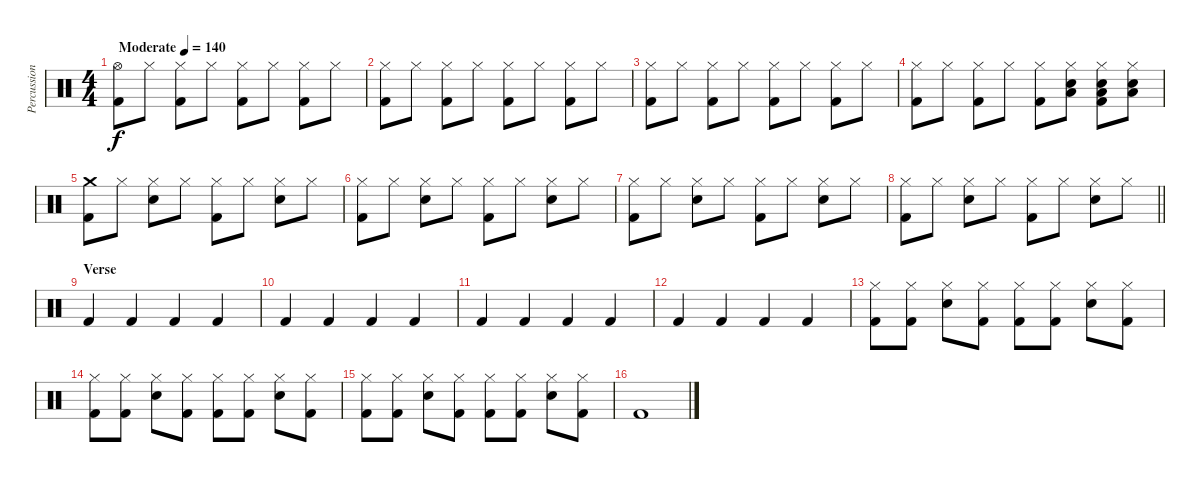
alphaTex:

\track ("Percussion" "Percussion") {instrument percussion}
\staff {score}
\articulation defaults
\ts (4 4)
\tempo (140 "Moderate")
\clef neutral
\ks c
("Hi-Hat (open)" "Kick (hit) 2").8{dy f} "Hi-Hat (closed)".8 ("Hi-Hat (closed)" "Kick (hit) 2").8 "Hi-Hat (closed)".8 ("Hi-Hat (closed)" "Kick (hit) 2").8 "Hi-Hat (closed)".8 ("Hi-Hat (closed)" "Kick (hit) 2").8 "Hi-Hat (closed)".8 |
("Hi-Hat (closed)" "Kick (hit) 2").8 "Hi-Hat (closed)".8 ("Hi-Hat (closed)" "Kick (hit) 2").8 "Hi-Hat (closed)".8 ("Hi-Hat (closed)" "Kick (hit) 2").8 "Hi-Hat (closed)".8 ("Hi-Hat (closed)" "Kick (hit) 2").8 "Hi-Hat (closed)".8 |
("Hi-Hat (closed)" "Kick (hit) 2").8 "Hi-Hat (closed)".8 ("Hi-Hat (closed)" "Kick (hit) 2").8 "Hi-Hat (closed)".8 ("Hi-Hat (closed)" "Kick (hit) 2").8 "Hi-Hat (closed)".8 ("Hi-Hat (closed)" "Kick (hit) 2").8 "Hi-Hat (closed)".8 |
("Hi-Hat (closed)" "Kick (hit) 2").8 "Hi-Hat (closed)".8 ("Hi-Hat (closed)" "Kick (hit) 2").8 "Hi-Hat (closed)".8 ("Hi-Hat (closed)" "Kick (hit) 2").8 ("Hi-Hat (closed)" "Snare (hit) 2" "Low Floor Tom (hit)").8 ("Hi-Hat (closed)" "Snare (hit) 2" "Low Floor Tom (hit)" "Kick (hit) 2").8 ("Hi-Hat (closed)" "Snare (hit) 2" "Low Floor Tom (hit)").8 |
("Crash medium (hit)" "Kick (hit) 2").8 "Hi-Hat (closed)".8 ("Hi-Hat (closed)" "Snare (hit) 2").8 "Hi-Hat (closed)".8 ("Hi-Hat (closed)" "Kick (hit) 2").8 "Hi-Hat (closed)".8 ("Hi-Hat (closed)" "Snare (hit) 2").8 "Hi-Hat (closed)".8 |
("Hi-Hat (closed)" "Kick (hit) 2").8 "Hi-Hat (closed)".8 ("Hi-Hat (closed)" "Snare (hit) 2").8 "Hi-Hat (closed)".8 ("Hi-Hat (closed)" "Kick (hit) 2").8 "Hi-Hat (closed)".8 ("Hi-Hat (closed)" "Snare (hit) 2").8 "Hi-Hat (closed)".8 |
("Hi-Hat (closed)" "Kick (hit) 2").8 "Hi-Hat (closed)".8 ("Hi-Hat (closed)" "Snare (hit) 2").8 "Hi-Hat (closed)".8 ("Hi-Hat (closed)" "Kick (hit) 2").8 "Hi-Hat (closed)".8 ("Hi-Hat (closed)" "Snare (hit) 2").8 "Hi-Hat (closed)".8 |
\barLineRight lightlight
("Hi-Hat (closed)" "Kick (hit) 2").8 "Hi-Hat (closed)".8 ("Hi-Hat (closed)" "Snare (hit) 2").8 "Hi-Hat (closed)".8 ("Hi-Hat (closed)" "Kick (hit) 2").8 "Hi-Hat (closed)".8 ("Hi-Hat (closed)" "Snare (hit) 2").8 "Hi-Hat (closed)".8 |
\section ("" "Verse")
"Kick (hit) 2".4 "Kick (hit) 2".4 "Kick (hit) 2".4 "Kick (hit) 2".4 |
"Kick (hit) 2".4 "Kick (hit) 2".4 "Kick (hit) 2".4 "Kick (hit) 2".4 |
"Kick (hit) 2".4 "Kick (hit) 2".4 "Kick (hit) 2".4 "Kick (hit) 2".4 |
"Kick (hit) 2".4 "Kick (hit) 2".4 "Kick (hit) 2".4 "Kick (hit) 2".4 |
("Hi-Hat (closed)" "Kick (hit) 2").8 ("Hi-Hat (closed)" "Kick (hit) 2").8 ("Hi-Hat (closed)" "Snare (hit) 2").8 ("Hi-Hat (closed)" "Kick (hit) 2").8 ("Hi-Hat (closed)" "Kick (hit) 2").8 ("Hi-Hat (closed)" "Kick (hit) 2").8 ("Hi-Hat (closed)" "Snare (hit) 2").8 ("Hi-Hat (closed)" "Kick (hit) 2").8 |
("Hi-Hat (closed)" "Kick (hit) 2").8 ("Hi-Hat (closed)" "Kick (hit) 2").8 ("Hi-Hat (closed)" "Snare (hit) 2").8 ("Hi-Hat (closed)" "Kick (hit) 2").8 ("Hi-Hat (closed)" "Kick (hit) 2").8 ("Hi-Hat (closed)" "Kick (hit) 2").8 ("Hi-Hat (closed)" "Snare (hit) 2").8 ("Hi-Hat (closed)" "Kick (hit) 2").8 |
("Hi-Hat (closed)" "Kick (hit) 2").8 ("Hi-Hat (closed)" "Kick (hit) 2").8 ("Hi-Hat (closed)" "Snare (hit) 2").8 ("Hi-Hat (closed)" "Kick (hit) 2").8 ("Hi-Hat (closed)" "Kick (hit) 2").8 ("Hi-Hat (closed)" "Kick (hit) 2").8 ("Hi-Hat (closed)" "Snare (hit) 2").8 ("Hi-Hat (closed)" "Kick (hit) 2").8 |
"Kick (hit) 2".1
